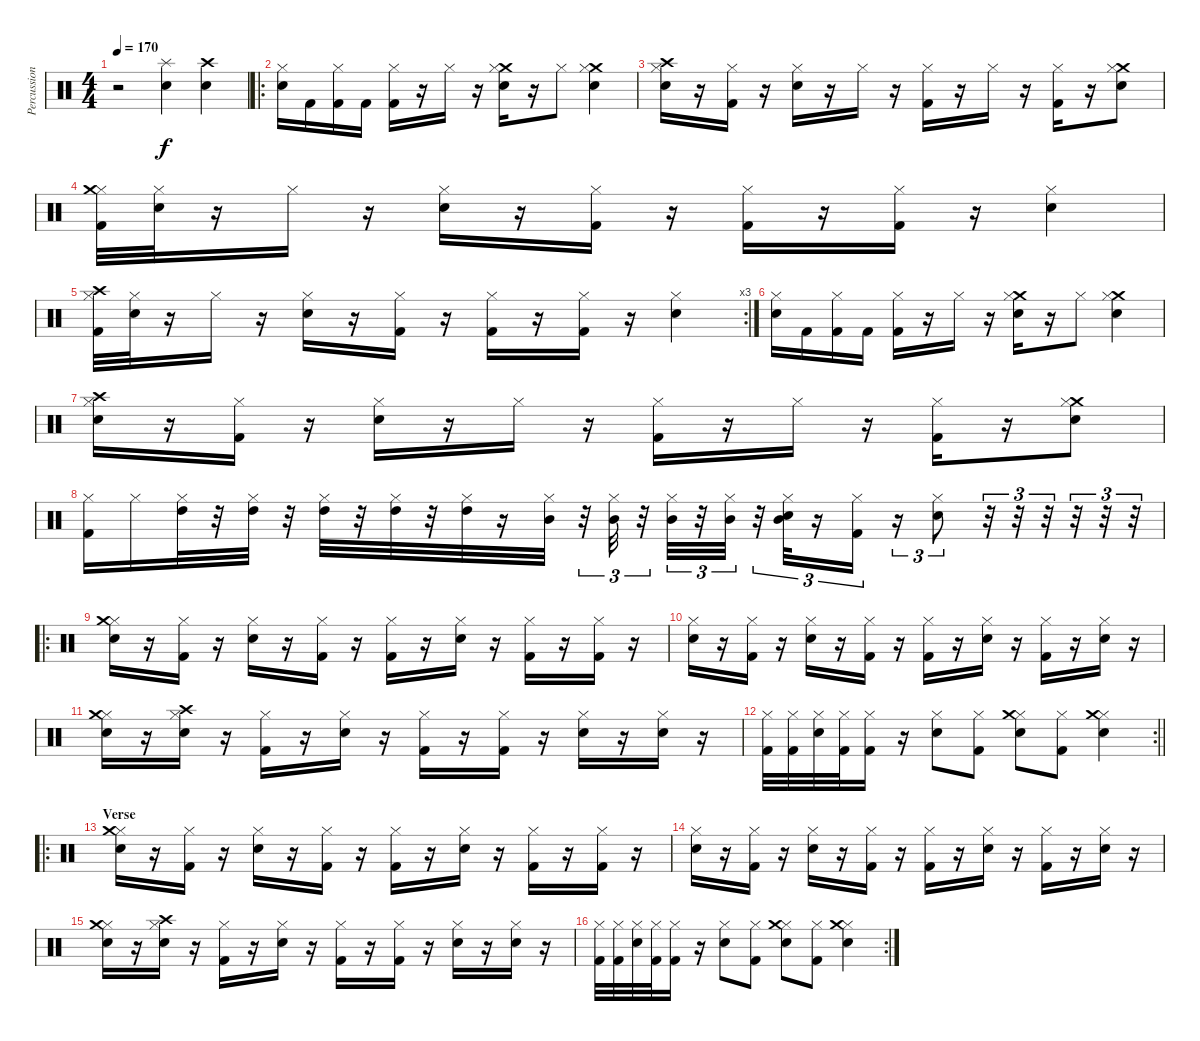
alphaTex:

\track ("Percussion" "Percussion") {instrument percussion}
\staff {score}
\articulation defaults
\ts (4 4)
\tempo 170
\clef neutral
\ks c
r.2{dy f} ("Snare (hit) 2" "Splash (hit)").4 ("Snare (hit) 2" "Crash high (hit)").4 |
\ro
("Snare (hit) 2" "Hi-Hat (closed)").16 "Kick (hit) 2".16 ("Kick (hit) 2" "Hi-Hat (closed)").16 "Kick (hit) 2".16 ("Kick (hit) 2" "Hi-Hat (closed)").16 r.16 "Hi-Hat (closed)".16 r.16 ("Crash medium (hit)" "Hi-Hat (closed)" "Snare (hit) 2").16 r.16 "Hi-Hat (closed)".8 ("Crash medium (hit)" "Hi-Hat (closed)" "Snare (hit) 2").4 |
("Hi-Hat (closed)" "Snare (hit) 2" "Crash high (hit)").16 r.16 ("Kick (hit) 2" "Hi-Hat (closed)").16 r.16 ("Snare (hit) 2" "Hi-Hat (closed)").16 r.16 "Hi-Hat (closed)".16 r.16 ("Hi-Hat (closed)" "Kick (hit) 2").16 r.16 "Hi-Hat (closed)".16 r.16 ("Hi-Hat (closed)" "Kick (hit) 2").16 r.16 ("Crash medium (hit)" "Hi-Hat (closed)" "Snare (hit) 2").8 |
("Kick (hit) 2" "Hi-Hat (closed)" "Crash medium (hit)").32 ("Snare (hit) 2" "Hi-Hat (closed)").32 r.16 "Hi-Hat (closed)".16 r.16 ("Snare (hit) 2" "Hi-Hat (closed)").16 r.16 ("Hi-Hat (closed)" "Kick (hit) 2").16 r.16 ("Hi-Hat (closed)" "Kick (hit) 2").16 r.16 ("Kick (hit) 2" "Hi-Hat (closed)").16 r.16 ("Snare (hit) 2" "Hi-Hat (closed)").4 |
\rc 3
("Kick (hit) 2" "Hi-Hat (closed)" "Crash high (hit)").32 ("Snare (hit) 2" "Hi-Hat (closed)").32 r.16 "Hi-Hat (closed)".16 r.16 ("Snare (hit) 2" "Hi-Hat (closed)").16 r.16 ("Hi-Hat (closed)" "Kick (hit) 2").16 r.16 ("Hi-Hat (closed)" "Kick (hit) 2").16 r.16 ("Kick (hit) 2" "Hi-Hat (closed)").16 r.16 ("Snare (hit) 2" "Hi-Hat (closed)").4 |
("Snare (hit) 2" "Hi-Hat (closed)").16 "Kick (hit) 2".16 ("Kick (hit) 2" "Hi-Hat (closed)").16 "Kick (hit) 2".16 ("Kick (hit) 2" "Hi-Hat (closed)").16 r.16 "Hi-Hat (closed)".16 r.16 ("Crash medium (hit)" "Hi-Hat (closed)" "Snare (hit) 2").16 r.16 "Hi-Hat (closed)".8 ("Crash medium (hit)" "Hi-Hat (closed)" "Snare (hit) 2").4 |
("Hi-Hat (closed)" "Snare (hit) 2" "Crash high (hit)").16 r.16 ("Kick (hit) 2" "Hi-Hat (closed)").16 r.16 ("Snare (hit) 2" "Hi-Hat (closed)").16 r.16 "Hi-Hat (closed)".16 r.16 ("Hi-Hat (closed)" "Kick (hit) 2").16 r.16 "Hi-Hat (closed)".16 r.16 ("Hi-Hat (closed)" "Kick (hit) 2").16 r.16 ("Crash medium (hit)" "Hi-Hat (closed)" "Snare (hit) 2").8 |
("Kick (hit) 2" "Hi-Hat (closed)").16 "Hi-Hat (closed)".16 ("High Tom (hit)" "Hi-Hat (closed)").32 r.32 ("High Tom (hit)" "Hi-Hat (closed)").32 r.32 ("Hi-Hat (closed)" "High Tom (hit)").32 r.32 ("High Tom (hit)" "Hi-Hat (closed)").32 r.32 ("High Tom (hit)" "Hi-Hat (closed)").32 r.16 ("Hi-Hat (closed)" "Mid Tom (hit)").32 r.32{tu (3 2)} ("Mid Tom (hit)" "Hi-Hat (closed)").32{tu (3 2)} r.32{tu (3 2)} ("Mid Tom (hit)" "Hi-Hat (closed)").32{tu (3 2)} r.32{tu (3 2)} ("Mid Tom (hit)" "Hi-Hat (closed)").32{tu (3 2)} r.32{tu (3 2)} ("Mid Tom (hit)" "Hi-Hat (closed)" "Snare (hit) 2").32{tu (3 2)} r.16{tu (3 2)} ("Kick (hit) 2" "Hi-Hat (closed)").16{tu (3 2)} r.16{tu (3 2)} ("Snare (hit) 2" "Hi-Hat (closed)").8{tu (3 2)} r.32{tu (3 2)} r.32{tu (3 2)} r.32{tu (3 2)} r.32{tu (3 2)} r.32{tu (3 2)} r.32{tu (3 2)} |
\ro
("Snare (hit) 2" "Hi-Hat (closed)" "Crash medium (hit)").16 r.16 ("Kick (hit) 2" "Hi-Hat (closed)").16 r.16 ("Snare (hit) 2" "Hi-Hat (closed)").16 r.16 ("Kick (hit) 2" "Hi-Hat (closed)").16 r.16 ("Kick (hit) 2" "Hi-Hat (closed)").16 r.16 ("Snare (hit) 2" "Hi-Hat (closed)").16 r.16 ("Kick (hit) 2" "Hi-Hat (closed)").16 r.16 ("Kick (hit) 2" "Hi-Hat (closed)").16 r.16 |
("Snare (hit) 2" "Hi-Hat (closed)").16 r.16 ("Kick (hit) 2" "Hi-Hat (closed)").16 r.16 ("Snare (hit) 2" "Hi-Hat (closed)").16 r.16 ("Kick (hit) 2" "Hi-Hat (closed)").16 r.16 ("Kick (hit) 2" "Hi-Hat (closed)").16 r.16 ("Snare (hit) 2" "Hi-Hat (closed)").16 r.16 ("Kick (hit) 2" "Hi-Hat (closed)").16 r.16 ("Snare (hit) 2" "Hi-Hat (closed)").16 r.16 |
("Hi-Hat (closed)" "Snare (hit) 2" "Crash medium (hit)").16 r.16 ("Snare (hit) 2" "Hi-Hat (closed)" "Crash high (hit)").16 r.16 ("Kick (hit) 2" "Hi-Hat (closed)").16 r.16 ("Snare (hit) 2" "Hi-Hat (closed)").16 r.16 ("Kick (hit) 2" "Hi-Hat (closed)").16 r.16 ("Kick (hit) 2" "Hi-Hat (closed)").16 r.16 ("Snare (hit) 2" "Hi-Hat (closed)").16 r.16 ("Snare (hit) 2" "Hi-Hat (closed)").16 r.16 |
\rc 2
\barLineRight lightlight
("Kick (hit) 2" "Hi-Hat (closed)").32 ("Kick (hit) 2" "Hi-Hat (closed)").32 ("Snare (hit) 2" "Hi-Hat (closed)").32 ("Kick (hit) 2" "Hi-Hat (closed)").32 ("Kick (hit) 2" "Hi-Hat (closed)").16 r.16 ("Snare (hit) 2" "Hi-Hat (closed)").8 ("Kick (hit) 2" "Hi-Hat (closed)").8 ("Snare (hit) 2" "Hi-Hat (closed)" "Crash medium (hit)").8 ("Kick (hit) 2" "Hi-Hat (closed)").8 ("Snare (hit) 2" "Hi-Hat (closed)" "Crash medium (hit)").4 |
\ro
\section ("" "Verse")
("Snare (hit) 2" "Hi-Hat (closed)" "Crash medium (hit)").16 r.16 ("Kick (hit) 2" "Hi-Hat (closed)").16 r.16 ("Snare (hit) 2" "Hi-Hat (closed)").16 r.16 ("Kick (hit) 2" "Hi-Hat (closed)").16 r.16 ("Kick (hit) 2" "Hi-Hat (closed)").16 r.16 ("Snare (hit) 2" "Hi-Hat (closed)").16 r.16 ("Kick (hit) 2" "Hi-Hat (closed)").16 r.16 ("Kick (hit) 2" "Hi-Hat (closed)").16 r.16 |
("Snare (hit) 2" "Hi-Hat (closed)").16 r.16 ("Kick (hit) 2" "Hi-Hat (closed)").16 r.16 ("Snare (hit) 2" "Hi-Hat (closed)").16 r.16 ("Kick (hit) 2" "Hi-Hat (closed)").16 r.16 ("Kick (hit) 2" "Hi-Hat (closed)").16 r.16 ("Snare (hit) 2" "Hi-Hat (closed)").16 r.16 ("Kick (hit) 2" "Hi-Hat (closed)").16 r.16 ("Snare (hit) 2" "Hi-Hat (closed)").16 r.16 |
("Hi-Hat (closed)" "Snare (hit) 2" "Crash medium (hit)").16 r.16 ("Snare (hit) 2" "Hi-Hat (closed)" "Crash high (hit)").16 r.16 ("Kick (hit) 2" "Hi-Hat (closed)").16 r.16 ("Snare (hit) 2" "Hi-Hat (closed)").16 r.16 ("Kick (hit) 2" "Hi-Hat (closed)").16 r.16 ("Kick (hit) 2" "Hi-Hat (closed)").16 r.16 ("Snare (hit) 2" "Hi-Hat (closed)").16 r.16 ("Snare (hit) 2" "Hi-Hat (closed)").16 r.16 |
\rc 2
("Kick (hit) 2" "Hi-Hat (closed)").32 ("Kick (hit) 2" "Hi-Hat (closed)").32 ("Snare (hit) 2" "Hi-Hat (closed)").32 ("Kick (hit) 2" "Hi-Hat (closed)").32 ("Kick (hit) 2" "Hi-Hat (closed)").16 r.16 ("Snare (hit) 2" "Hi-Hat (closed)").8 ("Kick (hit) 2" "Hi-Hat (closed)").8 ("Snare (hit) 2" "Hi-Hat (closed)" "Crash medium (hit)").8 ("Kick (hit) 2" "Hi-Hat (closed)").8 ("Snare (hit) 2" "Hi-Hat (closed)" "Crash medium (hit)").4
